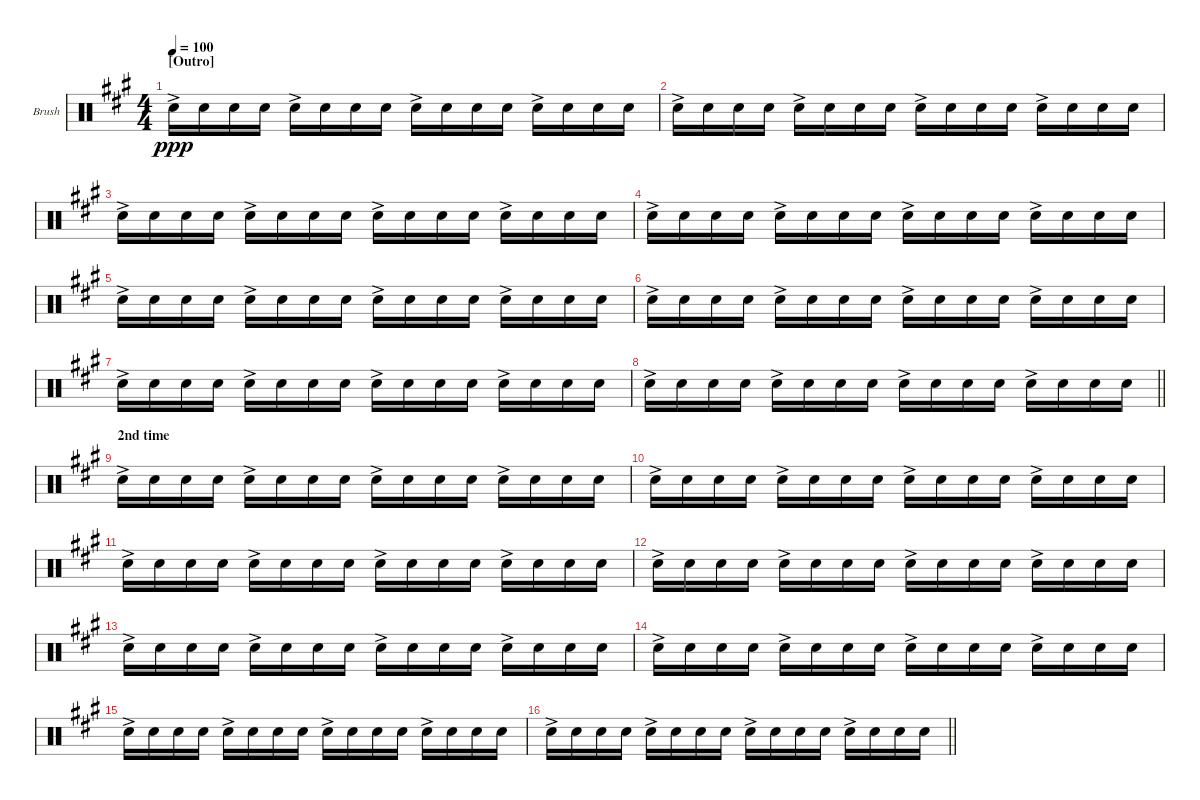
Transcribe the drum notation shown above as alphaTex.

\bracketExtendMode groupsimilarinstruments
\firstSystemTrackNameOrientation horizontal
\otherSystemsTrackNameOrientation horizontal
\track ("Brush Snare" "Brush") {instrument percussion}
\staff {score}
\articulation defaults
\ts (4 4)
\section ("" "[Outro]")
\tempo 100
\clef neutral
\ks f#minor "Snare (hit) 2"{ac}.16{dy ppp} "Snare (hit) 2".16 "Snare (hit) 2".16 "Snare (hit) 2".16 "Snare (hit) 2"{ac}.16 "Snare (hit) 2".16 "Snare (hit) 2".16 "Snare (hit) 2".16 "Snare (hit) 2"{ac}.16 "Snare (hit) 2".16 "Snare (hit) 2".16 "Snare (hit) 2".16 "Snare (hit) 2"{ac}.16 "Snare (hit) 2".16 "Snare (hit) 2".16 "Snare (hit) 2".16
|
"Snare (hit) 2"{ac}.16 "Snare (hit) 2".16 "Snare (hit) 2".16 "Snare (hit) 2".16 "Snare (hit) 2"{ac}.16 "Snare (hit) 2".16 "Snare (hit) 2".16 "Snare (hit) 2".16 "Snare (hit) 2"{ac}.16 "Snare (hit) 2".16 "Snare (hit) 2".16 "Snare (hit) 2".16 "Snare (hit) 2"{ac}.16 "Snare (hit) 2".16 "Snare (hit) 2".16 "Snare (hit) 2".16 |
"Snare (hit) 2"{ac}.16 "Snare (hit) 2".16 "Snare (hit) 2".16 "Snare (hit) 2".16 "Snare (hit) 2"{ac}.16 "Snare (hit) 2".16 "Snare (hit) 2".16 "Snare (hit) 2".16 "Snare (hit) 2"{ac}.16 "Snare (hit) 2".16 "Snare (hit) 2".16 "Snare (hit) 2".16 "Snare (hit) 2"{ac}.16 "Snare (hit) 2".16 "Snare (hit) 2".16 "Snare (hit) 2".16 |
"Snare (hit) 2"{ac}.16 "Snare (hit) 2".16 "Snare (hit) 2".16 "Snare (hit) 2".16 "Snare (hit) 2"{ac}.16 "Snare (hit) 2".16 "Snare (hit) 2".16 "Snare (hit) 2".16 "Snare (hit) 2"{ac}.16 "Snare (hit) 2".16 "Snare (hit) 2".16 "Snare (hit) 2".16 "Snare (hit) 2"{ac}.16 "Snare (hit) 2".16 "Snare (hit) 2".16 "Snare (hit) 2".16 |
"Snare (hit) 2"{ac}.16 "Snare (hit) 2".16 "Snare (hit) 2".16 "Snare (hit) 2".16 "Snare (hit) 2"{ac}.16 "Snare (hit) 2".16 "Snare (hit) 2".16 "Snare (hit) 2".16 "Snare (hit) 2"{ac}.16 "Snare (hit) 2".16 "Snare (hit) 2".16 "Snare (hit) 2".16 "Snare (hit) 2"{ac}.16 "Snare (hit) 2".16 "Snare (hit) 2".16 "Snare (hit) 2".16 |
"Snare (hit) 2"{ac}.16 "Snare (hit) 2".16 "Snare (hit) 2".16 "Snare (hit) 2".16 "Snare (hit) 2"{ac}.16 "Snare (hit) 2".16 "Snare (hit) 2".16 "Snare (hit) 2".16 "Snare (hit) 2"{ac}.16 "Snare (hit) 2".16 "Snare (hit) 2".16 "Snare (hit) 2".16 "Snare (hit) 2"{ac}.16 "Snare (hit) 2".16 "Snare (hit) 2".16 "Snare (hit) 2".16 |
"Snare (hit) 2"{ac}.16 "Snare (hit) 2".16 "Snare (hit) 2".16 "Snare (hit) 2".16 "Snare (hit) 2"{ac}.16 "Snare (hit) 2".16 "Snare (hit) 2".16 "Snare (hit) 2".16 "Snare (hit) 2"{ac}.16 "Snare (hit) 2".16 "Snare (hit) 2".16 "Snare (hit) 2".16 "Snare (hit) 2"{ac}.16 "Snare (hit) 2".16 "Snare (hit) 2".16 "Snare (hit) 2".16 |
\barLineRight lightlight "Snare (hit) 2"{ac}.16 "Snare (hit) 2".16 "Snare (hit) 2".16 "Snare (hit) 2".16 "Snare (hit) 2"{ac}.16 "Snare (hit) 2".16 "Snare (hit) 2".16 "Snare (hit) 2".16 "Snare (hit) 2"{ac}.16 "Snare (hit) 2".16 "Snare (hit) 2".16 "Snare (hit) 2".16 "Snare (hit) 2"{ac}.16 "Snare (hit) 2".16 "Snare (hit) 2".16 "Snare (hit) 2".16
|
\section ("" "2nd time")
"Snare (hit) 2"{ac}.16 "Snare (hit) 2".16 "Snare (hit) 2".16 "Snare (hit) 2".16 "Snare (hit) 2"{ac}.16 "Snare (hit) 2".16 "Snare (hit) 2".16 "Snare (hit) 2".16 "Snare (hit) 2"{ac}.16 "Snare (hit) 2".16 "Snare (hit) 2".16 "Snare (hit) 2".16 "Snare (hit) 2"{ac}.16 "Snare (hit) 2".16 "Snare (hit) 2".16 "Snare (hit) 2".16 |
"Snare (hit) 2"{ac}.16 "Snare (hit) 2".16 "Snare (hit) 2".16 "Snare (hit) 2".16 "Snare (hit) 2"{ac}.16 "Snare (hit) 2".16 "Snare (hit) 2".16 "Snare (hit) 2".16 "Snare (hit) 2"{ac}.16 "Snare (hit) 2".16 "Snare (hit) 2".16 "Snare (hit) 2".16 "Snare (hit) 2"{ac}.16 "Snare (hit) 2".16 "Snare (hit) 2".16 "Snare (hit) 2".16 |
"Snare (hit) 2"{ac}.16 "Snare (hit) 2".16 "Snare (hit) 2".16 "Snare (hit) 2".16 "Snare (hit) 2"{ac}.16 "Snare (hit) 2".16 "Snare (hit) 2".16 "Snare (hit) 2".16 "Snare (hit) 2"{ac}.16 "Snare (hit) 2".16 "Snare (hit) 2".16 "Snare (hit) 2".16 "Snare (hit) 2"{ac}.16 "Snare (hit) 2".16 "Snare (hit) 2".16 "Snare (hit) 2".16 |
"Snare (hit) 2"{ac}.16 "Snare (hit) 2".16 "Snare (hit) 2".16 "Snare (hit) 2".16 "Snare (hit) 2"{ac}.16 "Snare (hit) 2".16 "Snare (hit) 2".16 "Snare (hit) 2".16 "Snare (hit) 2"{ac}.16 "Snare (hit) 2".16 "Snare (hit) 2".16 "Snare (hit) 2".16 "Snare (hit) 2"{ac}.16 "Snare (hit) 2".16 "Snare (hit) 2".16 "Snare (hit) 2".16 |
"Snare (hit) 2"{ac}.16 "Snare (hit) 2".16 "Snare (hit) 2".16 "Snare (hit) 2".16 "Snare (hit) 2"{ac}.16 "Snare (hit) 2".16 "Snare (hit) 2".16 "Snare (hit) 2".16 "Snare (hit) 2"{ac}.16 "Snare (hit) 2".16 "Snare (hit) 2".16 "Snare (hit) 2".16 "Snare (hit) 2"{ac}.16 "Snare (hit) 2".16 "Snare (hit) 2".16 "Snare (hit) 2".16 |
"Snare (hit) 2"{ac}.16 "Snare (hit) 2".16 "Snare (hit) 2".16 "Snare (hit) 2".16 "Snare (hit) 2"{ac}.16 "Snare (hit) 2".16 "Snare (hit) 2".16 "Snare (hit) 2".16 "Snare (hit) 2"{ac}.16 "Snare (hit) 2".16 "Snare (hit) 2".16 "Snare (hit) 2".16 "Snare (hit) 2"{ac}.16 "Snare (hit) 2".16 "Snare (hit) 2".16 "Snare (hit) 2".16 |
"Snare (hit) 2"{ac}.16 "Snare (hit) 2".16 "Snare (hit) 2".16 "Snare (hit) 2".16 "Snare (hit) 2"{ac}.16 "Snare (hit) 2".16 "Snare (hit) 2".16 "Snare (hit) 2".16 "Snare (hit) 2"{ac}.16 "Snare (hit) 2".16 "Snare (hit) 2".16 "Snare (hit) 2".16 "Snare (hit) 2"{ac}.16 "Snare (hit) 2".16 "Snare (hit) 2".16 "Snare (hit) 2".16 |
\barLineRight lightlight "Snare (hit) 2"{ac}.16 "Snare (hit) 2".16 "Snare (hit) 2".16 "Snare (hit) 2".16 "Snare (hit) 2"{ac}.16 "Snare (hit) 2".16 "Snare (hit) 2".16 "Snare (hit) 2".16 "Snare (hit) 2"{ac}.16 "Snare (hit) 2".16 "Snare (hit) 2".16 "Snare (hit) 2".16 "Snare (hit) 2"{ac}.16 "Snare (hit) 2".16 "Snare (hit) 2".16 "Snare (hit) 2".16
